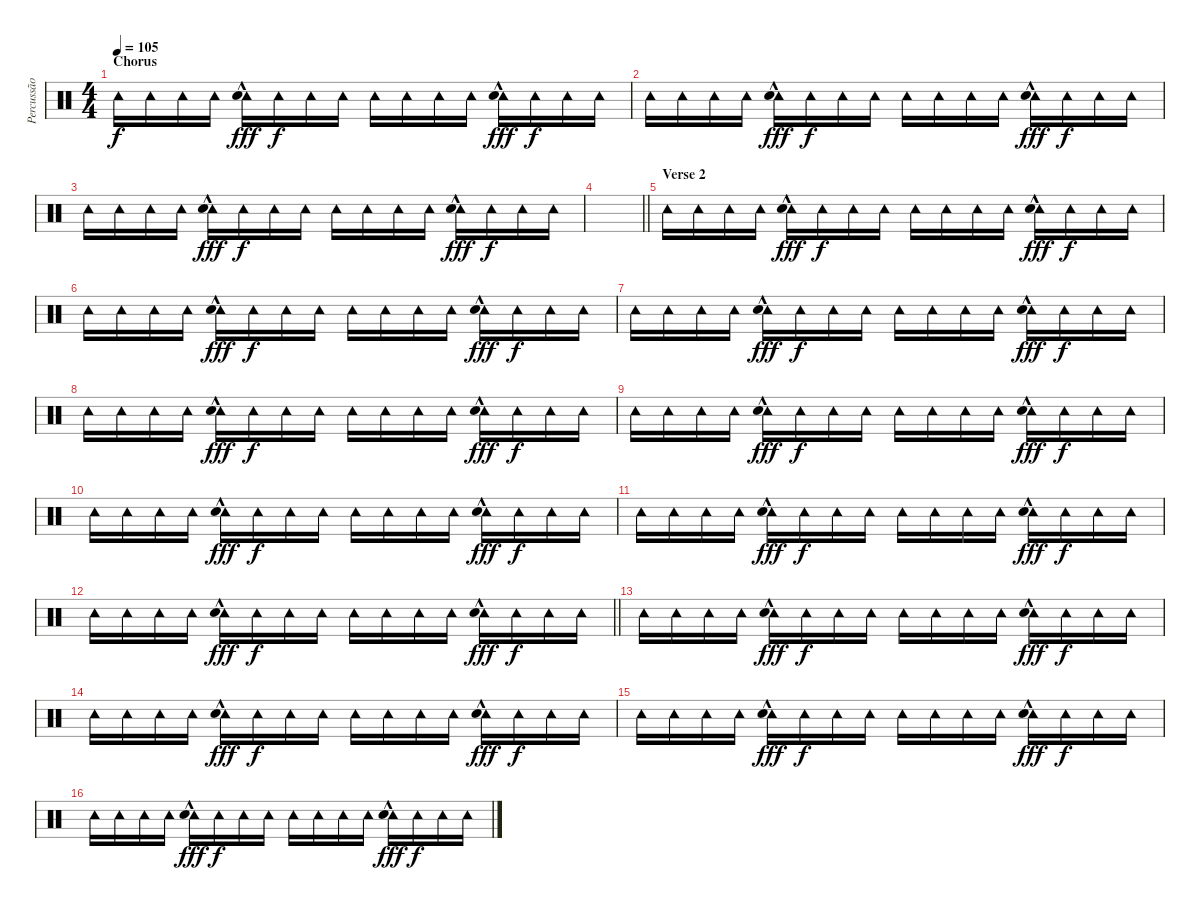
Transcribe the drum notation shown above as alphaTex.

\track ("Percussão" "Percussão") {instrument percussion}
\staff {score}
\articulation defaults
\ts (4 4)
\section ("" "Chorus")
\tempo 105
\clef neutral
\ks c "Tambourine (hit)".16{dy f} "Tambourine (hit)".16 "Tambourine (hit)".16 "Tambourine (hit)".16
("Tambourine (hit)" "Hand Clap (hit)"{hac}).16{dy fff} "Tambourine (hit)".16{dy f} "Tambourine (hit)".16 "Tambourine (hit)".16 "Tambourine (hit)".16 "Tambourine (hit)".16 "Tambourine (hit)".16 "Tambourine (hit)".16 ("Tambourine (hit)" "Hand Clap (hit)"{hac}).16{dy fff} "Tambourine (hit)".16{dy f} "Tambourine (hit)".16 "Tambourine (hit)".16 |
"Tambourine (hit)".16 "Tambourine (hit)".16 "Tambourine (hit)".16 "Tambourine (hit)".16 ("Tambourine (hit)" "Hand Clap (hit)"{hac}).16{dy fff} "Tambourine (hit)".16{dy f} "Tambourine (hit)".16 "Tambourine (hit)".16 "Tambourine (hit)".16 "Tambourine (hit)".16 "Tambourine (hit)".16 "Tambourine (hit)".16 ("Tambourine (hit)" "Hand Clap (hit)"{hac}).16{dy fff} "Tambourine (hit)".16{dy f} "Tambourine (hit)".16 "Tambourine (hit)".16 |
"Tambourine (hit)".16 "Tambourine (hit)".16 "Tambourine (hit)".16 "Tambourine (hit)".16 ("Tambourine (hit)" "Hand Clap (hit)"{hac}).16{dy fff} "Tambourine (hit)".16{dy f} "Tambourine (hit)".16 "Tambourine (hit)".16 "Tambourine (hit)".16 "Tambourine (hit)".16 "Tambourine (hit)".16 "Tambourine (hit)".16 ("Tambourine (hit)" "Hand Clap (hit)"{hac}).16{dy fff} "Tambourine (hit)".16{dy f} "Tambourine (hit)".16 "Tambourine (hit)".16 |
\barLineRight lightlight
|
\section ("" "Verse 2")
"Tambourine (hit)".16 "Tambourine (hit)".16 "Tambourine (hit)".16 "Tambourine (hit)".16 ("Tambourine (hit)" "Hand Clap (hit)"{hac}).16{dy fff} "Tambourine (hit)".16{dy f} "Tambourine (hit)".16 "Tambourine (hit)".16 "Tambourine (hit)".16 "Tambourine (hit)".16 "Tambourine (hit)".16 "Tambourine (hit)".16 ("Tambourine (hit)" "Hand Clap (hit)"{hac}).16{dy fff} "Tambourine (hit)".16{dy f} "Tambourine (hit)".16 "Tambourine (hit)".16 |
"Tambourine (hit)".16 "Tambourine (hit)".16 "Tambourine (hit)".16 "Tambourine (hit)".16 ("Tambourine (hit)" "Hand Clap (hit)"{hac}).16{dy fff} "Tambourine (hit)".16{dy f} "Tambourine (hit)".16 "Tambourine (hit)".16 "Tambourine (hit)".16 "Tambourine (hit)".16 "Tambourine (hit)".16 "Tambourine (hit)".16 ("Tambourine (hit)" "Hand Clap (hit)"{hac}).16{dy fff} "Tambourine (hit)".16{dy f} "Tambourine (hit)".16 "Tambourine (hit)".16 |
"Tambourine (hit)".16 "Tambourine (hit)".16 "Tambourine (hit)".16 "Tambourine (hit)".16 ("Tambourine (hit)" "Hand Clap (hit)"{hac}).16{dy fff} "Tambourine (hit)".16{dy f} "Tambourine (hit)".16 "Tambourine (hit)".16 "Tambourine (hit)".16 "Tambourine (hit)".16 "Tambourine (hit)".16 "Tambourine (hit)".16 ("Tambourine (hit)" "Hand Clap (hit)"{hac}).16{dy fff} "Tambourine (hit)".16{dy f} "Tambourine (hit)".16 "Tambourine (hit)".16 |
"Tambourine (hit)".16 "Tambourine (hit)".16 "Tambourine (hit)".16 "Tambourine (hit)".16 ("Tambourine (hit)" "Hand Clap (hit)"{hac}).16{dy fff} "Tambourine (hit)".16{dy f} "Tambourine (hit)".16 "Tambourine (hit)".16 "Tambourine (hit)".16 "Tambourine (hit)".16 "Tambourine (hit)".16 "Tambourine (hit)".16 ("Tambourine (hit)" "Hand Clap (hit)"{hac}).16{dy fff} "Tambourine (hit)".16{dy f} "Tambourine (hit)".16 "Tambourine (hit)".16 |
"Tambourine (hit)".16 "Tambourine (hit)".16 "Tambourine (hit)".16 "Tambourine (hit)".16 ("Tambourine (hit)" "Hand Clap (hit)"{hac}).16{dy fff} "Tambourine (hit)".16{dy f} "Tambourine (hit)".16 "Tambourine (hit)".16 "Tambourine (hit)".16 "Tambourine (hit)".16 "Tambourine (hit)".16 "Tambourine (hit)".16 ("Tambourine (hit)" "Hand Clap (hit)"{hac}).16{dy fff} "Tambourine (hit)".16{dy f} "Tambourine (hit)".16 "Tambourine (hit)".16 |
"Tambourine (hit)".16 "Tambourine (hit)".16 "Tambourine (hit)".16 "Tambourine (hit)".16 ("Tambourine (hit)" "Hand Clap (hit)"{hac}).16{dy fff} "Tambourine (hit)".16{dy f} "Tambourine (hit)".16 "Tambourine (hit)".16 "Tambourine (hit)".16 "Tambourine (hit)".16 "Tambourine (hit)".16 "Tambourine (hit)".16 ("Tambourine (hit)" "Hand Clap (hit)"{hac}).16{dy fff} "Tambourine (hit)".16{dy f} "Tambourine (hit)".16 "Tambourine (hit)".16 |
"Tambourine (hit)".16 "Tambourine (hit)".16 "Tambourine (hit)".16 "Tambourine (hit)".16 ("Tambourine (hit)" "Hand Clap (hit)"{hac}).16{dy fff} "Tambourine (hit)".16{dy f} "Tambourine (hit)".16 "Tambourine (hit)".16 "Tambourine (hit)".16 "Tambourine (hit)".16 "Tambourine (hit)".16 "Tambourine (hit)".16 ("Tambourine (hit)" "Hand Clap (hit)"{hac}).16{dy fff} "Tambourine (hit)".16{dy f} "Tambourine (hit)".16 "Tambourine (hit)".16 |
\barLineRight lightlight "Tambourine (hit)".16 "Tambourine (hit)".16 "Tambourine (hit)".16 "Tambourine (hit)".16
("Tambourine (hit)" "Hand Clap (hit)"{hac}).16{dy fff} "Tambourine (hit)".16{dy f} "Tambourine (hit)".16 "Tambourine (hit)".16 "Tambourine (hit)".16 "Tambourine (hit)".16 "Tambourine (hit)".16 "Tambourine (hit)".16 ("Tambourine (hit)" "Hand Clap (hit)"{hac}).16{dy fff} "Tambourine (hit)".16{dy f} "Tambourine (hit)".16 "Tambourine (hit)".16 |
"Tambourine (hit)".16 "Tambourine (hit)".16 "Tambourine (hit)".16 "Tambourine (hit)".16 ("Tambourine (hit)" "Hand Clap (hit)"{hac}).16{dy fff} "Tambourine (hit)".16{dy f} "Tambourine (hit)".16 "Tambourine (hit)".16 "Tambourine (hit)".16 "Tambourine (hit)".16 "Tambourine (hit)".16 "Tambourine (hit)".16 ("Tambourine (hit)" "Hand Clap (hit)"{hac}).16{dy fff} "Tambourine (hit)".16{dy f} "Tambourine (hit)".16 "Tambourine (hit)".16 |
"Tambourine (hit)".16 "Tambourine (hit)".16 "Tambourine (hit)".16 "Tambourine (hit)".16 ("Tambourine (hit)" "Hand Clap (hit)"{hac}).16{dy fff} "Tambourine (hit)".16{dy f} "Tambourine (hit)".16 "Tambourine (hit)".16 "Tambourine (hit)".16 "Tambourine (hit)".16 "Tambourine (hit)".16 "Tambourine (hit)".16 ("Tambourine (hit)" "Hand Clap (hit)"{hac}).16{dy fff} "Tambourine (hit)".16{dy f} "Tambourine (hit)".16 "Tambourine (hit)".16 |
"Tambourine (hit)".16 "Tambourine (hit)".16 "Tambourine (hit)".16 "Tambourine (hit)".16 ("Tambourine (hit)" "Hand Clap (hit)"{hac}).16{dy fff} "Tambourine (hit)".16{dy f} "Tambourine (hit)".16 "Tambourine (hit)".16 "Tambourine (hit)".16 "Tambourine (hit)".16 "Tambourine (hit)".16 "Tambourine (hit)".16 ("Tambourine (hit)" "Hand Clap (hit)"{hac}).16{dy fff} "Tambourine (hit)".16{dy f} "Tambourine (hit)".16 "Tambourine (hit)".16 |
"Tambourine (hit)".16 "Tambourine (hit)".16 "Tambourine (hit)".16 "Tambourine (hit)".16 ("Tambourine (hit)" "Hand Clap (hit)"{hac}).16{dy fff} "Tambourine (hit)".16{dy f} "Tambourine (hit)".16 "Tambourine (hit)".16 "Tambourine (hit)".16 "Tambourine (hit)".16 "Tambourine (hit)".16 "Tambourine (hit)".16 ("Tambourine (hit)" "Hand Clap (hit)"{hac}).16{dy fff} "Tambourine (hit)".16{dy f} "Tambourine (hit)".16 "Tambourine (hit)".16
